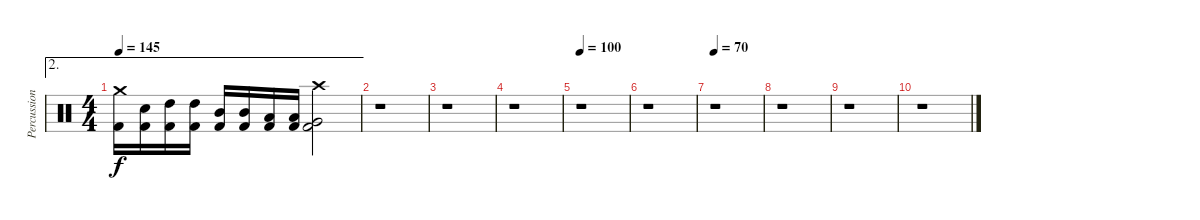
\track ("Percussion" "Percussion") {instrument percussion}
\staff {score}
\articulation defaults
\ae 2
\ts (4 4)
\tempo 145
\clef neutral
\ks c
("Kick (hit) 2" "Crash medium (hit)").16{dy f} ("Kick (hit) 2" "Electric Snare (hit)").16 ("Kick (hit) 2" "High Tom (hit)").16 ("Kick (hit) 2" "High Tom (hit)").16 ("Kick (hit) 2" "Mid Tom (hit)").16 ("Kick (hit) 2" "Mid Tom (hit)").16 ("Kick (hit) 2" "Low Tom (hit)").16 ("Kick (hit) 2" "Low Tom (hit)").16 ("Kick (hit) 2" "Very Low Tom (hit)" "Crash high (hit)").2 |
r.1 |
r.1 |
r.1 |
\tempo 100
r.1 |
r.1 |
\tempo 70
r.1 |
r.1 |
r.1 |
r.1
